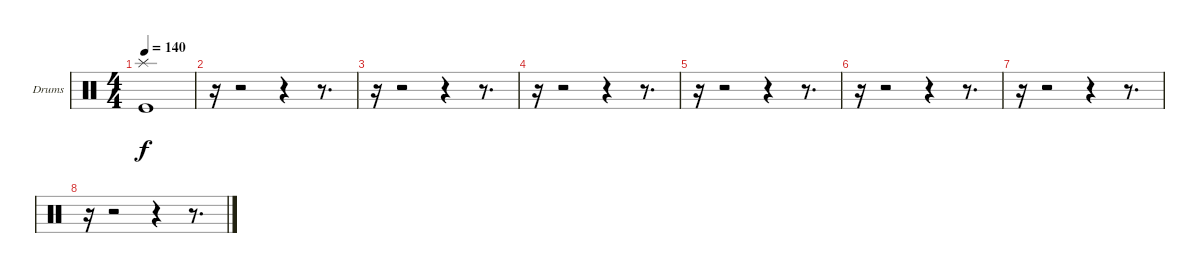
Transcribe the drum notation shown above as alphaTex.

\bracketExtendMode groupsimilarinstruments
\firstSystemTrackNameOrientation horizontal
\otherSystemsTrackNameOrientation horizontal
\track ("Drumkit" "Drums") {instrument percussion}
\staff {score}
\articulation defaults
\ts (4 4)
\tempo 140
\clef neutral
\ks c
("Splash (hit)" "Kick (hit)").1{dy f} |
r.16 r.2 r.4 r.8{d} |
r.16 r.2 r.4 r.8{d} |
r.16 r.2 r.4 r.8{d} |
r.16 r.2 r.4 r.8{d} |
r.16 r.2 r.4 r.8{d} |
r.16 r.2 r.4 r.8{d} |
r.16 r.2 r.4 r.8{d}
